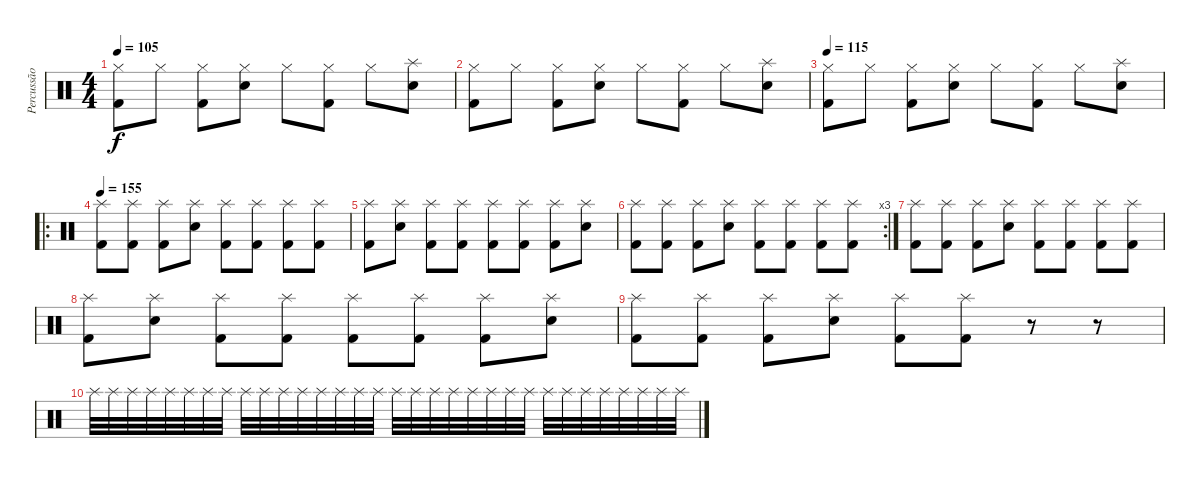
\track ("Percussão" "Percussão") {instrument percussion}
\staff {score}
\articulation defaults
\ts (4 4)
\tempo 105
\clef neutral
\ks c
("Hi-Hat (closed)" "Kick (hit) 2").8{dy f} "Hi-Hat (closed)".8 ("Hi-Hat (closed)" "Kick (hit) 2").8 ("Hi-Hat (closed)" "Snare (hit) 2").8 "Hi-Hat (closed)".8 ("Hi-Hat (closed)" "Kick (hit) 2").8 "Hi-Hat (closed)".8 ("Splash (hit)" "Snare (hit) 2").8 |
("Hi-Hat (closed)" "Kick (hit) 2").8 "Hi-Hat (closed)".8 ("Hi-Hat (closed)" "Kick (hit) 2").8 ("Hi-Hat (closed)" "Snare (hit) 2").8 "Hi-Hat (closed)".8 ("Hi-Hat (closed)" "Kick (hit) 2").8 "Hi-Hat (closed)".8 ("Splash (hit)" "Snare (hit) 2").8 |
\tempo 115
("Hi-Hat (closed)" "Kick (hit) 2").8 "Hi-Hat (closed)".8 ("Hi-Hat (closed)" "Kick (hit) 2").8 ("Hi-Hat (closed)" "Snare (hit) 2").8 "Hi-Hat (closed)".8 ("Hi-Hat (closed)" "Kick (hit) 2").8 "Hi-Hat (closed)".8 ("Splash (hit)" "Snare (hit) 2").8 |
\ro
\tempo 155
("Splash (hit)" "Kick (hit) 2").8 ("Splash (hit)" "Kick (hit) 2").8 ("Splash (hit)" "Kick (hit) 2").8 ("Splash (hit)" "Snare (hit) 2").8 ("Splash (hit)" "Kick (hit) 2").8 ("Splash (hit)" "Kick (hit) 2").8 ("Splash (hit)" "Kick (hit) 2").8 ("Splash (hit)" "Kick (hit) 2").8 |
("Splash (hit)" "Kick (hit) 2").8 ("Splash (hit)" "Snare (hit) 2").8 ("Splash (hit)" "Kick (hit) 2").8 ("Splash (hit)" "Kick (hit) 2").8 ("Splash (hit)" "Kick (hit) 2").8 ("Splash (hit)" "Kick (hit) 2").8 ("Splash (hit)" "Kick (hit) 2").8 ("Splash (hit)" "Snare (hit) 2").8 |
\rc 3
("Splash (hit)" "Kick (hit) 2").8 ("Splash (hit)" "Kick (hit) 2").8 ("Splash (hit)" "Kick (hit) 2").8 ("Splash (hit)" "Snare (hit) 2").8 ("Splash (hit)" "Kick (hit) 2").8 ("Splash (hit)" "Kick (hit) 2").8 ("Splash (hit)" "Kick (hit) 2").8 ("Splash (hit)" "Kick (hit) 2").8 |
("Splash (hit)" "Kick (hit) 2").8 ("Splash (hit)" "Kick (hit) 2").8 ("Splash (hit)" "Kick (hit) 2").8 ("Splash (hit)" "Snare (hit) 2").8 ("Splash (hit)" "Kick (hit) 2").8 ("Splash (hit)" "Kick (hit) 2").8 ("Splash (hit)" "Kick (hit) 2").8 ("Splash (hit)" "Kick (hit) 2").8 |
("Splash (hit)" "Kick (hit) 2").8 ("Splash (hit)" "Snare (hit) 2").8 ("Splash (hit)" "Kick (hit) 2").8 ("Splash (hit)" "Kick (hit) 2").8 ("Splash (hit)" "Kick (hit) 2").8 ("Splash (hit)" "Kick (hit) 2").8 ("Splash (hit)" "Kick (hit) 2").8 ("Splash (hit)" "Snare (hit) 2").8 |
("Splash (hit)" "Kick (hit) 2").8 ("Splash (hit)" "Kick (hit) 2").8 ("Splash (hit)" "Kick (hit) 2").8 ("Splash (hit)" "Snare (hit) 2").8 ("Splash (hit)" "Kick (hit) 2").8 ("Splash (hit)" "Kick (hit) 2").8 r.8 r.8 |
"Splash (hit)".32 "Splash (hit)".32 "Splash (hit)".32 "Splash (hit)".32 "Splash (hit)".32 "Splash (hit)".32 "Splash (hit)".32 "Splash (hit)".32 "Splash (hit)".32 "Splash (hit)".32 "Splash (hit)".32 "Splash (hit)".32 "Splash (hit)".32 "Splash (hit)".32 "Splash (hit)".32 "Splash (hit)".32 "Splash (hit)".32 "Splash (hit)".32 "Splash (hit)".32 "Splash (hit)".32 "Splash (hit)".32 "Splash (hit)".32 "Splash (hit)".32 "Splash (hit)".32 "Splash (hit)".32 "Splash (hit)".32 "Splash (hit)".32 "Splash (hit)".32 "Splash (hit)".32 "Splash (hit)".32 "Splash (hit)".32 "Splash (hit)".32
